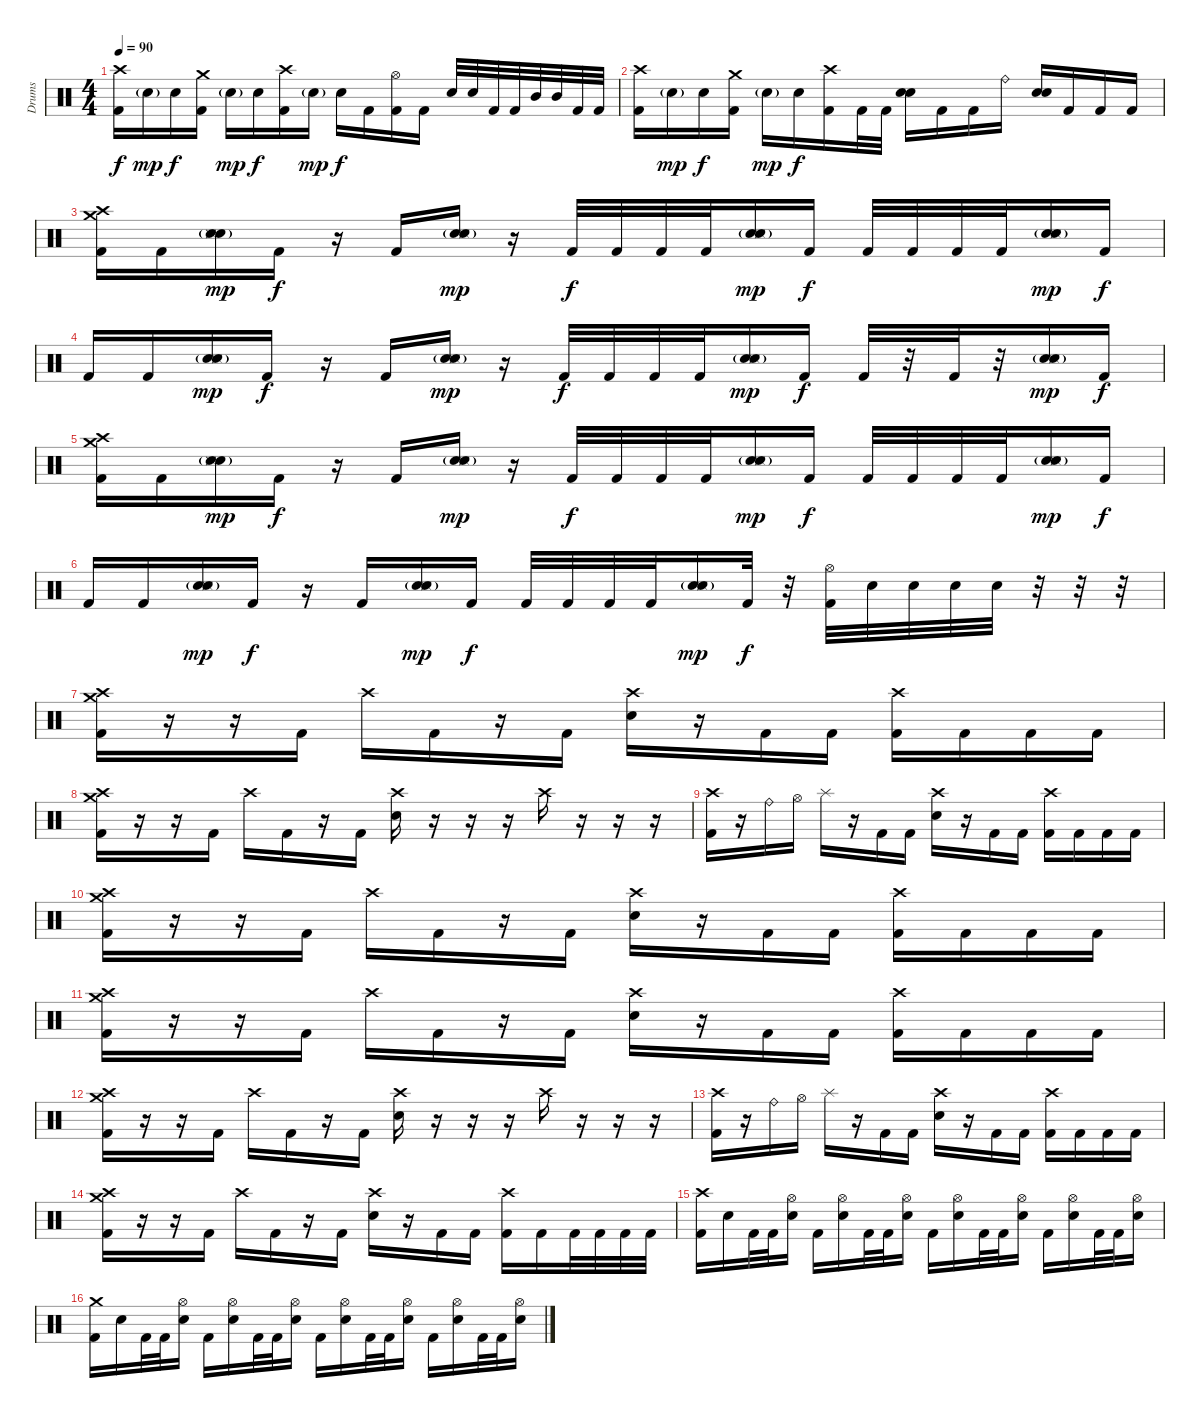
\track ("Drums" "Drums") {instrument percussion}
\staff {score}
\articulation defaults
\ts (4 4)
\tempo 90
\clef neutral
\ks c
("Crash high (hit)" "Kick (hit) 2").16{dy f} "Electric Snare (hit)"{g}.16{dy mp} "Electric Snare (hit)".16{dy f} ("Crash medium (hit)" "Kick (hit) 2").16 "Electric Snare (hit)"{g}.16{dy mp} "Electric Snare (hit)".16{dy f} ("Crash high (hit)" "Kick (hit) 2").16 "Electric Snare (hit)"{g}.16{dy mp} "Electric Snare (hit)".16{dy f} "Kick (hit) 2".16 ("Hi-Hat (open)" "Kick (hit) 2").16 "Kick (hit) 2".16 "Electric Snare (hit)".32 "Electric Snare (hit)".32 "Kick (hit) 2".32 "Kick (hit) 2".32 "Mid Tom (hit)".32 "Mid Tom (hit)".32 "Kick (hit) 2".32 "Kick (hit) 2".32 |
("Crash high (hit)" "Kick (hit) 2").16 "Electric Snare (hit)"{g}.16{dy mp} "Electric Snare (hit)".16{dy f} ("Crash medium (hit)" "Kick (hit) 2").16 "Electric Snare (hit)"{g}.16{dy mp} "Electric Snare (hit)".16{dy f} ("Crash high (hit)" "Kick (hit) 2").16 "Kick (hit) 2".32 "Kick (hit) 2".32 ("Electric Snare (hit)" "Electric Snare (hit)").16{bd 480} "Kick (hit) 2".16 "Kick (hit) 2".16 "Ride (bell)".16 ("Electric Snare (hit)" "Electric Snare (hit)").16{bd 480} "Kick (hit) 2".16 "Kick (hit) 2".16 "Kick (hit) 2".16 |
("Crash high (hit)" "Crash medium (hit)" "Kick (hit) 2").16 "Kick (hit) 2".16 ("Hand Clap (hit)" "Snare (side stick) 3"{g} "Electric Snare (hit)").16{dy mp} "Kick (hit) 2".16{dy f} r.16 "Kick (hit) 2".16 ("Hand Clap (hit)" "Snare (side stick) 3"{g} "Electric Snare (hit)").16{dy mp} r.16 "Kick (hit) 2".32{dy f} "Kick (hit) 2".32 "Kick (hit) 2".32 "Kick (hit) 2".32 ("Hand Clap (hit)" "Snare (side stick) 3"{g} "Electric Snare (hit)").16{dy mp} "Kick (hit) 2".16{dy f} "Kick (hit) 2".32 "Kick (hit) 2".32 "Kick (hit) 2".32 "Kick (hit) 2".32 ("Hand Clap (hit)" "Snare (side stick) 3"{g} "Electric Snare (hit)").16{dy mp} "Kick (hit) 2".16{dy f} |
"Kick (hit) 2".16 "Kick (hit) 2".16 ("Hand Clap (hit)" "Snare (side stick) 3"{g} "Electric Snare (hit)").16{dy mp} "Kick (hit) 2".16{dy f} r.16 "Kick (hit) 2".16 ("Hand Clap (hit)" "Snare (side stick) 3"{g} "Electric Snare (hit)").16{dy mp} r.16 "Kick (hit) 2".32{dy f} "Kick (hit) 2".32 "Kick (hit) 2".32 "Kick (hit) 2".32 ("Hand Clap (hit)" "Snare (side stick) 3"{g} "Electric Snare (hit)").16{dy mp} "Kick (hit) 2".16{dy f} "Kick (hit) 2".32 r.32 "Kick (hit) 2".32 r.32 ("Hand Clap (hit)" "Snare (side stick) 3"{g} "Electric Snare (hit)").16{dy mp} "Kick (hit) 2".16{dy f} |
("Crash high (hit)" "Crash medium (hit)" "Kick (hit) 2").16 "Kick (hit) 2".16 ("Hand Clap (hit)" "Snare (side stick) 3"{g} "Electric Snare (hit)").16{dy mp} "Kick (hit) 2".16{dy f} r.16 "Kick (hit) 2".16 ("Hand Clap (hit)" "Snare (side stick) 3"{g} "Electric Snare (hit)").16{dy mp} r.16 "Kick (hit) 2".32{dy f} "Kick (hit) 2".32 "Kick (hit) 2".32 "Kick (hit) 2".32 ("Hand Clap (hit)" "Snare (side stick) 3"{g} "Electric Snare (hit)").16{dy mp} "Kick (hit) 2".16{dy f} "Kick (hit) 2".32 "Kick (hit) 2".32 "Kick (hit) 2".32 "Kick (hit) 2".32 ("Hand Clap (hit)" "Snare (side stick) 3"{g} "Electric Snare (hit)").16{dy mp} "Kick (hit) 2".16{dy f} |
"Kick (hit) 2".16 "Kick (hit) 2".16 ("Hand Clap (hit)" "Snare (side stick) 3"{g} "Electric Snare (hit)").16{dy mp} "Kick (hit) 2".16{dy f} r.16 "Kick (hit) 2".16 ("Hand Clap (hit)" "Snare (side stick) 3"{g} "Electric Snare (hit)").16{dy mp} "Kick (hit) 2".16{dy f} "Kick (hit) 2".32 "Kick (hit) 2".32 "Kick (hit) 2".32 "Kick (hit) 2".32 ("Hand Clap (hit)" "Snare (side stick) 3"{g} "Electric Snare (hit)").16{dy mp} "Kick (hit) 2".32{dy f} r.32 ("Hi-Hat (open)" "Kick (hit) 2").32 "Electric Snare (hit)".32 "Electric Snare (hit)".32 "Electric Snare (hit)".32 "Electric Snare (hit)".32 r.32 r.32 r.32 |
("Crash high (hit)" "Crash medium (hit)" "Kick (hit) 2").16 r.16 r.16 "Kick (hit) 2".16 "Crash high (hit)".16 "Kick (hit) 2".16 r.16 "Kick (hit) 2".16 ("Crash high (hit)" "Electric Snare (hit)").16 r.16 "Kick (hit) 2".16 "Kick (hit) 2".16 ("Crash high (hit)" "Kick (hit) 2").16 "Kick (hit) 2".16 "Kick (hit) 2".16 "Kick (hit) 2".16 |
("Crash high (hit)" "Crash medium (hit)" "Kick (hit) 2").16 r.16 r.16 "Kick (hit) 2".16 "Crash high (hit)".16 "Kick (hit) 2".16 r.16 "Kick (hit) 2".16 ("Crash high (hit)" "Electric Snare (hit)").16 r.16 r.16 r.16 "Crash high (hit)".16 r.16 r.16 r.16 |
("Crash high (hit)" "Kick (hit) 2").16 r.16 "Ride (bell)".16 "Hi-Hat (open)".16 "Splash (hit)".16 r.16 "Kick (hit) 2".16 "Kick (hit) 2".16 ("Crash high (hit)" "Electric Snare (hit)").16 r.16 "Kick (hit) 2".16 "Kick (hit) 2".16 ("Crash high (hit)" "Kick (hit) 2").16 "Kick (hit) 2".16 "Kick (hit) 2".16 "Kick (hit) 2".16 |
("Crash high (hit)" "Crash medium (hit)" "Kick (hit) 2").16 r.16 r.16 "Kick (hit) 2".16 "Crash high (hit)".16 "Kick (hit) 2".16 r.16 "Kick (hit) 2".16 ("Crash high (hit)" "Electric Snare (hit)").16 r.16 "Kick (hit) 2".16 "Kick (hit) 2".16 ("Crash high (hit)" "Kick (hit) 2").16 "Kick (hit) 2".16 "Kick (hit) 2".16 "Kick (hit) 2".16 |
("Crash high (hit)" "Crash medium (hit)" "Kick (hit) 2").16 r.16 r.16 "Kick (hit) 2".16 "Crash high (hit)".16 "Kick (hit) 2".16 r.16 "Kick (hit) 2".16 ("Crash high (hit)" "Electric Snare (hit)").16 r.16 "Kick (hit) 2".16 "Kick (hit) 2".16 ("Crash high (hit)" "Kick (hit) 2").16 "Kick (hit) 2".16 "Kick (hit) 2".16 "Kick (hit) 2".16 |
("Crash high (hit)" "Crash medium (hit)" "Kick (hit) 2").16 r.16 r.16 "Kick (hit) 2".16 "Crash high (hit)".16 "Kick (hit) 2".16 r.16 "Kick (hit) 2".16 ("Crash high (hit)" "Electric Snare (hit)").16 r.16 r.16 r.16 "Crash high (hit)".16 r.16 r.16 r.16 |
("Crash high (hit)" "Kick (hit) 2").16 r.16 "Ride (bell)".16 "Hi-Hat (open)".16 "Splash (hit)".16 r.16 "Kick (hit) 2".16 "Kick (hit) 2".16 ("Crash high (hit)" "Electric Snare (hit)").16 r.16 "Kick (hit) 2".16 "Kick (hit) 2".16 ("Crash high (hit)" "Kick (hit) 2").16 "Kick (hit) 2".16 "Kick (hit) 2".16 "Kick (hit) 2".16 |
("Crash high (hit)" "Crash medium (hit)" "Kick (hit) 2").16 r.16 r.16 "Kick (hit) 2".16 "Crash high (hit)".16 "Kick (hit) 2".16 r.16 "Kick (hit) 2".16 ("Crash high (hit)" "Electric Snare (hit)").16 r.16 "Kick (hit) 2".16 "Kick (hit) 2".16 ("Crash high (hit)" "Kick (hit) 2").16 "Kick (hit) 2".16 "Kick (hit) 2".32 "Kick (hit) 2".32 "Kick (hit) 2".32 "Kick (hit) 2".32 |
("Crash high (hit)" "Kick (hit) 2").16 "Electric Snare (hit)".16 "Kick (hit) 2".32 "Kick (hit) 2".32 ("Hi-Hat (open)" "Electric Snare (hit)").16 "Kick (hit) 2".16 ("Hi-Hat (open)" "Electric Snare (hit)").16 "Kick (hit) 2".32 "Kick (hit) 2".32 ("Hi-Hat (open)" "Electric Snare (hit)").16 "Kick (hit) 2".16 ("Hi-Hat (open)" "Electric Snare (hit)").16 "Kick (hit) 2".32 "Kick (hit) 2".32 ("Hi-Hat (open)" "Electric Snare (hit)").16 "Kick (hit) 2".16 ("Hi-Hat (open)" "Electric Snare (hit)").16 "Kick (hit) 2".32 "Kick (hit) 2".32 ("Hi-Hat (open)" "Electric Snare (hit)").16 |
("Crash medium (hit)" "Kick (hit) 2").16 "Electric Snare (hit)".16 "Kick (hit) 2".32 "Kick (hit) 2".32 ("Hi-Hat (open)" "Electric Snare (hit)").16 "Kick (hit) 2".16 ("Hi-Hat (open)" "Electric Snare (hit)").16 "Kick (hit) 2".32 "Kick (hit) 2".32 ("Hi-Hat (open)" "Electric Snare (hit)").16 "Kick (hit) 2".16 ("Hi-Hat (open)" "Electric Snare (hit)").16 "Kick (hit) 2".32 "Kick (hit) 2".32 ("Hi-Hat (open)" "Electric Snare (hit)").16 "Kick (hit) 2".16 ("Hi-Hat (open)" "Electric Snare (hit)").16 "Kick (hit) 2".32 "Kick (hit) 2".32 ("Hi-Hat (open)" "Electric Snare (hit)").16
